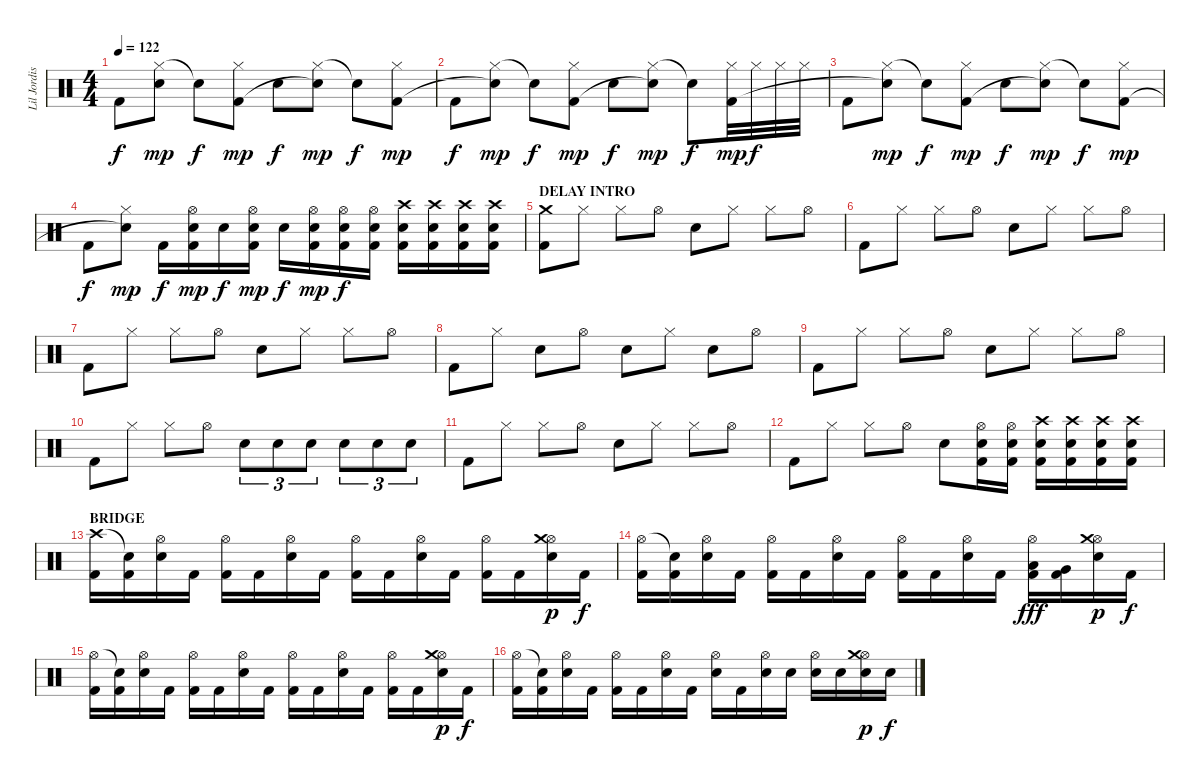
\track ("Lil Jordison" "Lil Jordis") {instrument percussion}
\staff {score}
\articulation defaults
\ts (4 4)
\tempo 122
\clef neutral
\ks c "Kick (hit) 2".8{dy f}
("Hi-Hat (closed)" "Snare (hit)"{t}).8{dy mp} "Snare (hit)"{t}.8{dy f} ("Hi-Hat (closed)" "Kick (hit) 2").8{dy mp} "Electric Snare (hit)".8{dy f} ("Hi-Hat (closed)" "Snare (hit)"{t}).8{dy mp} "Snare (hit)"{t}.8{dy f} ("Hi-Hat (closed)" "Kick (hit) 2").8{dy mp} |
"Kick (hit) 2".8{dy f} ("Hi-Hat (closed)" "Snare (hit)"{t}).8{dy mp} "Snare (hit)"{t}.8{dy f} ("Hi-Hat (closed)" "Kick (hit) 2").8{dy mp} "Electric Snare (hit)".8{dy f} ("Hi-Hat (closed)" "Snare (hit)"{t}).8{dy mp} "Snare (hit)"{t}.8{dy f} ("Hi-Hat (closed)" "Kick (hit) 2").32{dy mp} "Hi-Hat (closed)".32{dy f} "Hi-Hat (closed)".32 "Hi-Hat (closed)".32 |
"Kick (hit) 2".8 ("Hi-Hat (closed)" "Snare (hit)"{t}).8{dy mp} "Snare (hit)"{t}.8{dy f} ("Hi-Hat (closed)" "Kick (hit) 2").8{dy mp} "Electric Snare (hit)".8{dy f} ("Hi-Hat (closed)" "Snare (hit)"{t}).8{dy mp} "Snare (hit)"{t}.8{dy f} ("Hi-Hat (closed)" "Kick (hit) 2").8{dy mp} |
"Kick (hit) 2".8{dy f} ("Hi-Hat (closed)" "Snare (hit)"{t}).8{dy mp} "Kick (hit) 2".16{dy f} ("Hi-Hat (open)" "Kick (hit) 2" "Electric Snare (hit)").16{dy mp} "Electric Snare (hit)".16{dy f} ("Hi-Hat (open)" "Kick (hit) 2" "Electric Snare (hit)").16{dy mp} "Electric Snare (hit)".16{dy f} ("Hi-Hat (open)" "Kick (hit) 2" "Electric Snare (hit)").16{dy mp} ("Hi-Hat (open)" "Kick (hit) 2" "Electric Snare (hit)").16{dy f} ("Hi-Hat (open)" "Kick (hit) 2" "Electric Snare (hit)").16 ("Crash high (hit)" "Kick (hit) 2" "Electric Snare (hit)").16 ("Crash high (hit)" "Kick (hit) 2" "Electric Snare (hit)").16 ("Crash high (hit)" "Kick (hit) 2" "Electric Snare (hit)").16 ("Crash high (hit)" "Kick (hit) 2" "Electric Snare (hit)").16 |
\section ("" "DELAY INTRO")
("Crash medium (hit)" "Kick (hit) 2").8 "Hi-Hat (closed)".8 "Hi-Hat (closed)".8 "Hi-Hat (open)".8 "Electric Snare (hit)".8 "Hi-Hat (closed)".8 "Hi-Hat (closed)".8 "Hi-Hat (open)".8 |
"Kick (hit) 2".8 "Hi-Hat (closed)".8 "Hi-Hat (closed)".8 "Hi-Hat (open)".8 "Electric Snare (hit)".8 "Hi-Hat (closed)".8 "Hi-Hat (closed)".8 "Hi-Hat (open)".8 |
"Kick (hit) 2".8 "Hi-Hat (closed)".8 "Hi-Hat (closed)".8 "Hi-Hat (open)".8 "Electric Snare (hit)".8 "Hi-Hat (closed)".8 "Hi-Hat (closed)".8 "Hi-Hat (open)".8 |
"Kick (hit) 2".8 "Hi-Hat (closed)".8 "Electric Snare (hit)".8 "Hi-Hat (open)".8 "Electric Snare (hit)".8 "Hi-Hat (closed)".8 "Electric Snare (hit)".8 "Hi-Hat (open)".8 |
"Kick (hit) 2".8 "Hi-Hat (closed)".8 "Hi-Hat (closed)".8 "Hi-Hat (open)".8 "Electric Snare (hit)".8 "Hi-Hat (closed)".8 "Hi-Hat (closed)".8 "Hi-Hat (open)".8 |
"Kick (hit) 2".8 "Hi-Hat (closed)".8 "Hi-Hat (closed)".8 "Hi-Hat (open)".8 "Electric Snare (hit)".8{tu (3 2)} "Electric Snare (hit)".8{tu (3 2)} "Electric Snare (hit)".8{tu (3 2)} "Electric Snare (hit)".8{tu (3 2)} "Electric Snare (hit)".8{tu (3 2)} "Electric Snare (hit)".8{tu (3 2)} |
"Kick (hit) 2".8 "Hi-Hat (closed)".8 "Hi-Hat (closed)".8 "Hi-Hat (open)".8 "Electric Snare (hit)".8 "Hi-Hat (closed)".8 "Hi-Hat (closed)".8 "Hi-Hat (open)".8 |
"Kick (hit) 2".8 "Hi-Hat (closed)".8 "Hi-Hat (closed)".8 "Hi-Hat (open)".8 "Electric Snare (hit)".8 ("Hi-Hat (open)" "Kick (hit) 2" "Electric Snare (hit)").16 ("Hi-Hat (open)" "Kick (hit) 2" "Electric Snare (hit)").16 ("Crash high (hit)" "Kick (hit) 2" "Electric Snare (hit)").16 ("Crash high (hit)" "Kick (hit) 2" "Electric Snare (hit)").16 ("Crash high (hit)" "Kick (hit) 2" "Electric Snare (hit)").16 ("Crash high (hit)" "Kick (hit) 2" "Electric Snare (hit)").16 |
\section ("" "BRIDGE")
("Crash high (hit)" "Kick (hit) 2").16 ("Snare (hit)"{t} "Kick (hit) 2").16 ("Hi-Hat (open)" "Electric Snare (hit)").16 "Kick (hit) 2".16 ("Hi-Hat (open)" "Kick (hit) 2").16 "Kick (hit) 2".16 ("Hi-Hat (open)" "Electric Snare (hit)").16 "Kick (hit) 2".16 ("Hi-Hat (open)" "Kick (hit) 2").16 "Kick (hit) 2".16 ("Hi-Hat (open)" "Electric Snare (hit)").16 "Kick (hit) 2".16 ("Hi-Hat (open)" "Kick (hit) 2").16 "Kick (hit) 2".16 ("Hi-Hat (open)" "Crash medium (hit)" "Electric Snare (hit)").16{dy p} "Kick (hit) 2".16{dy f} |
("Hi-Hat (open)" "Kick (hit) 2").16 ("Snare (hit)"{t} "Kick (hit) 2").16 ("Hi-Hat (open)" "Electric Snare (hit)").16 "Kick (hit) 2".16 ("Hi-Hat (open)" "Kick (hit) 2").16 "Kick (hit) 2".16 ("Hi-Hat (open)" "Electric Snare (hit)").16 "Kick (hit) 2".16 ("Hi-Hat (open)" "Kick (hit) 2").16 "Kick (hit) 2".16 ("Hi-Hat (open)" "Electric Snare (hit)").16 "Kick (hit) 2".16 ("Hi-Hat (open)" "Low Tom (hit)" "Kick (hit) 2").16{dy fff} ("Very Low Tom (hit)" "Kick (hit) 2").16 ("Hi-Hat (open)" "Crash medium (hit)" "Electric Snare (hit)").16{dy p} "Kick (hit) 2".16{dy f} |
("Hi-Hat (open)" "Kick (hit) 2").16 ("Snare (hit)"{t} "Kick (hit) 2").16 ("Hi-Hat (open)" "Electric Snare (hit)").16 "Kick (hit) 2".16 ("Hi-Hat (open)" "Kick (hit) 2").16 "Kick (hit) 2".16 ("Hi-Hat (open)" "Electric Snare (hit)").16 "Kick (hit) 2".16 ("Hi-Hat (open)" "Kick (hit) 2").16 "Kick (hit) 2".16 ("Hi-Hat (open)" "Electric Snare (hit)").16 "Kick (hit) 2".16 ("Hi-Hat (open)" "Kick (hit) 2").16 "Kick (hit) 2".16 ("Hi-Hat (open)" "Crash medium (hit)" "Electric Snare (hit)").16{dy p} "Kick (hit) 2".16{dy f} |
("Hi-Hat (open)" "Kick (hit) 2").16 ("Snare (hit)"{t} "Kick (hit) 2").16 ("Hi-Hat (open)" "Electric Snare (hit)").16 "Kick (hit) 2".16 ("Hi-Hat (open)" "Kick (hit) 2").16 "Kick (hit) 2".16 ("Hi-Hat (open)" "Electric Snare (hit)").16 "Kick (hit) 2".16 ("Hi-Hat (open)" "Electric Snare (hit)").16 "Kick (hit) 2".16 ("Hi-Hat (open)" "Electric Snare (hit)").16 "Electric Snare (hit)".16 ("Hi-Hat (open)" "Electric Snare (hit)").16 "Electric Snare (hit)".16 ("Hi-Hat (open)" "Crash medium (hit)" "Electric Snare (hit)").16{dy p} "Electric Snare (hit)".16{dy f}
